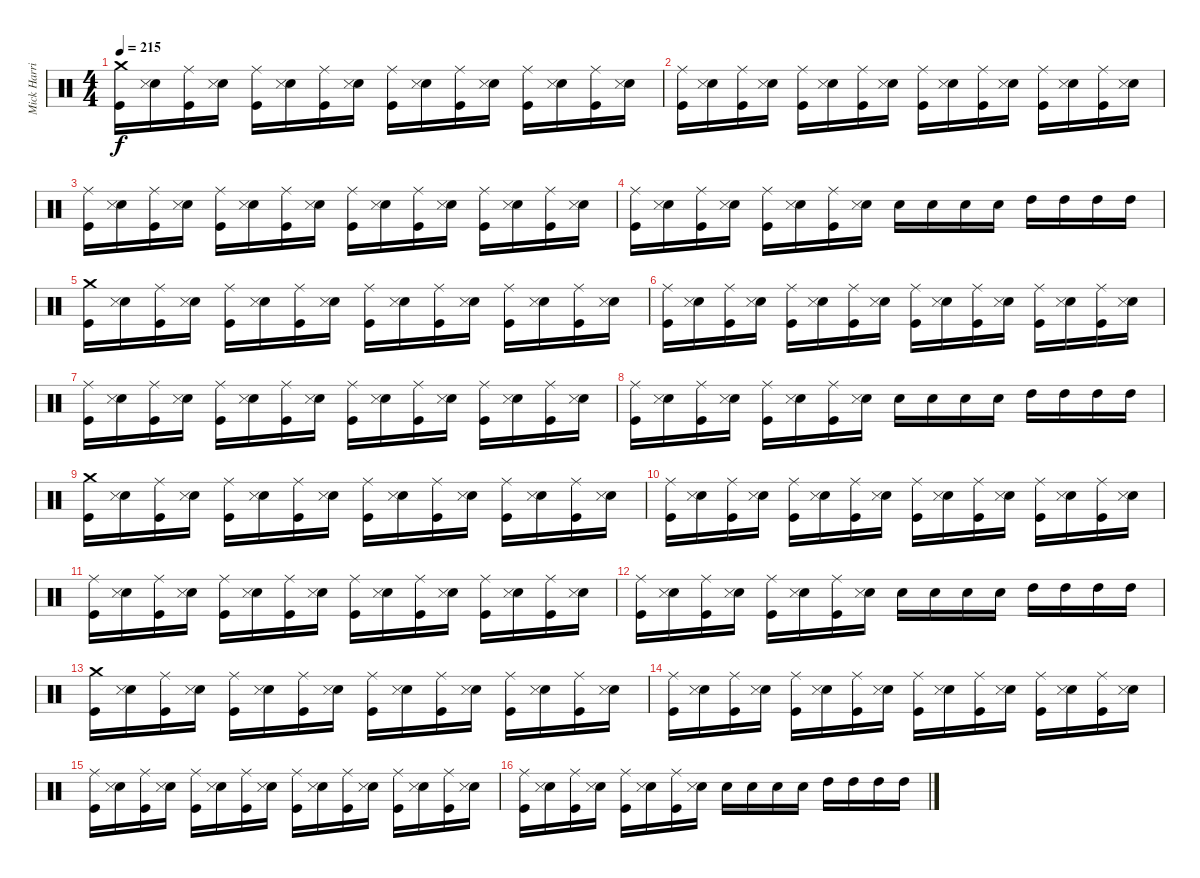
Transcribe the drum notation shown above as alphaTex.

\track ("Mick Harris (Drums)" "Mick Harri") {instrument percussion}
\staff {score}
\articulation defaults
\ts (4 4)
\tempo 215
\clef neutral
\ks c
("Kick (hit)" "Crash medium (hit)").16{dy f} ("Electric Snare (hit)" "Snare (side stick) 3").16 ("Kick (hit)" "Ride (middle)").16 ("Electric Snare (hit)" "Snare (side stick) 3").16 ("Kick (hit)" "Ride (middle)").16 ("Electric Snare (hit)" "Snare (side stick) 3").16 ("Kick (hit)" "Ride (middle)").16 ("Electric Snare (hit)" "Snare (side stick) 3").16 ("Kick (hit)" "Ride (middle)").16 ("Electric Snare (hit)" "Snare (side stick) 3").16 ("Kick (hit)" "Ride (middle)").16 ("Electric Snare (hit)" "Snare (side stick) 3").16 ("Kick (hit)" "Ride (middle)").16 ("Electric Snare (hit)" "Snare (side stick) 3").16 ("Kick (hit)" "Ride (middle)").16 ("Electric Snare (hit)" "Snare (side stick) 3").16 |
("Kick (hit)" "Ride (middle)").16 ("Electric Snare (hit)" "Snare (side stick) 3").16 ("Kick (hit)" "Ride (middle)").16 ("Electric Snare (hit)" "Snare (side stick) 3").16 ("Kick (hit)" "Ride (middle)").16 ("Electric Snare (hit)" "Snare (side stick) 3").16 ("Kick (hit)" "Ride (middle)").16 ("Electric Snare (hit)" "Snare (side stick) 3").16 ("Kick (hit)" "Ride (middle)").16 ("Electric Snare (hit)" "Snare (side stick) 3").16 ("Kick (hit)" "Ride (middle)").16 ("Electric Snare (hit)" "Snare (side stick) 3").16 ("Kick (hit)" "Ride (middle)").16 ("Electric Snare (hit)" "Snare (side stick) 3").16 ("Kick (hit)" "Ride (middle)").16 ("Electric Snare (hit)" "Snare (side stick) 3").16 |
("Kick (hit)" "Ride (middle)").16 ("Electric Snare (hit)" "Snare (side stick) 3").16 ("Kick (hit)" "Ride (middle)").16 ("Electric Snare (hit)" "Snare (side stick) 3").16 ("Kick (hit)" "Ride (middle)").16 ("Electric Snare (hit)" "Snare (side stick) 3").16 ("Kick (hit)" "Ride (middle)").16 ("Electric Snare (hit)" "Snare (side stick) 3").16 ("Kick (hit)" "Ride (middle)").16 ("Electric Snare (hit)" "Snare (side stick) 3").16 ("Kick (hit)" "Ride (middle)").16 ("Electric Snare (hit)" "Snare (side stick) 3").16 ("Kick (hit)" "Ride (middle)").16 ("Electric Snare (hit)" "Snare (side stick) 3").16 ("Kick (hit)" "Ride (middle)").16 ("Electric Snare (hit)" "Snare (side stick) 3").16 |
("Kick (hit)" "Ride (middle)").16 ("Electric Snare (hit)" "Snare (side stick) 3").16 ("Kick (hit)" "Ride (middle)").16 ("Electric Snare (hit)" "Snare (side stick) 3").16 ("Kick (hit)" "Ride (middle)").16 ("Electric Snare (hit)" "Snare (side stick) 3").16 ("Kick (hit)" "Ride (middle)").16 ("Electric Snare (hit)" "Snare (side stick) 3").16 "Electric Snare (hit)".16 "Electric Snare (hit)".16 "Electric Snare (hit)".16 "Electric Snare (hit)".16 "High Tom (hit)".16 "High Tom (hit)".16 "High Tom (hit)".16 "High Tom (hit)".16 |
("Kick (hit)" "Crash medium (hit)").16 ("Electric Snare (hit)" "Snare (side stick) 3").16 ("Kick (hit)" "Ride (middle)").16 ("Electric Snare (hit)" "Snare (side stick) 3").16 ("Kick (hit)" "Ride (middle)").16 ("Electric Snare (hit)" "Snare (side stick) 3").16 ("Kick (hit)" "Ride (middle)").16 ("Electric Snare (hit)" "Snare (side stick) 3").16 ("Kick (hit)" "Ride (middle)").16 ("Electric Snare (hit)" "Snare (side stick) 3").16 ("Kick (hit)" "Ride (middle)").16 ("Electric Snare (hit)" "Snare (side stick) 3").16 ("Kick (hit)" "Ride (middle)").16 ("Electric Snare (hit)" "Snare (side stick) 3").16 ("Kick (hit)" "Ride (middle)").16 ("Electric Snare (hit)" "Snare (side stick) 3").16 |
("Kick (hit)" "Ride (middle)").16 ("Electric Snare (hit)" "Snare (side stick) 3").16 ("Kick (hit)" "Ride (middle)").16 ("Electric Snare (hit)" "Snare (side stick) 3").16 ("Kick (hit)" "Ride (middle)").16 ("Electric Snare (hit)" "Snare (side stick) 3").16 ("Kick (hit)" "Ride (middle)").16 ("Electric Snare (hit)" "Snare (side stick) 3").16 ("Kick (hit)" "Ride (middle)").16 ("Electric Snare (hit)" "Snare (side stick) 3").16 ("Kick (hit)" "Ride (middle)").16 ("Electric Snare (hit)" "Snare (side stick) 3").16 ("Kick (hit)" "Ride (middle)").16 ("Electric Snare (hit)" "Snare (side stick) 3").16 ("Kick (hit)" "Ride (middle)").16 ("Electric Snare (hit)" "Snare (side stick) 3").16 |
("Kick (hit)" "Ride (middle)").16 ("Electric Snare (hit)" "Snare (side stick) 3").16 ("Kick (hit)" "Ride (middle)").16 ("Electric Snare (hit)" "Snare (side stick) 3").16 ("Kick (hit)" "Ride (middle)").16 ("Electric Snare (hit)" "Snare (side stick) 3").16 ("Kick (hit)" "Ride (middle)").16 ("Electric Snare (hit)" "Snare (side stick) 3").16 ("Kick (hit)" "Ride (middle)").16 ("Electric Snare (hit)" "Snare (side stick) 3").16 ("Kick (hit)" "Ride (middle)").16 ("Electric Snare (hit)" "Snare (side stick) 3").16 ("Kick (hit)" "Ride (middle)").16 ("Electric Snare (hit)" "Snare (side stick) 3").16 ("Kick (hit)" "Ride (middle)").16 ("Electric Snare (hit)" "Snare (side stick) 3").16 |
("Kick (hit)" "Ride (middle)").16 ("Electric Snare (hit)" "Snare (side stick) 3").16 ("Kick (hit)" "Ride (middle)").16 ("Electric Snare (hit)" "Snare (side stick) 3").16 ("Kick (hit)" "Ride (middle)").16 ("Electric Snare (hit)" "Snare (side stick) 3").16 ("Kick (hit)" "Ride (middle)").16 ("Electric Snare (hit)" "Snare (side stick) 3").16 "Electric Snare (hit)".16 "Electric Snare (hit)".16 "Electric Snare (hit)".16 "Electric Snare (hit)".16 "High Tom (hit)".16 "High Tom (hit)".16 "High Tom (hit)".16 "High Tom (hit)".16 |
("Kick (hit)" "Crash medium (hit)").16 ("Electric Snare (hit)" "Snare (side stick) 3").16 ("Kick (hit)" "Ride (middle)").16 ("Electric Snare (hit)" "Snare (side stick) 3").16 ("Kick (hit)" "Ride (middle)").16 ("Electric Snare (hit)" "Snare (side stick) 3").16 ("Kick (hit)" "Ride (middle)").16 ("Electric Snare (hit)" "Snare (side stick) 3").16 ("Kick (hit)" "Ride (middle)").16 ("Electric Snare (hit)" "Snare (side stick) 3").16 ("Kick (hit)" "Ride (middle)").16 ("Electric Snare (hit)" "Snare (side stick) 3").16 ("Kick (hit)" "Ride (middle)").16 ("Electric Snare (hit)" "Snare (side stick) 3").16 ("Kick (hit)" "Ride (middle)").16 ("Electric Snare (hit)" "Snare (side stick) 3").16 |
("Kick (hit)" "Ride (middle)").16 ("Electric Snare (hit)" "Snare (side stick) 3").16 ("Kick (hit)" "Ride (middle)").16 ("Electric Snare (hit)" "Snare (side stick) 3").16 ("Kick (hit)" "Ride (middle)").16 ("Electric Snare (hit)" "Snare (side stick) 3").16 ("Kick (hit)" "Ride (middle)").16 ("Electric Snare (hit)" "Snare (side stick) 3").16 ("Kick (hit)" "Ride (middle)").16 ("Electric Snare (hit)" "Snare (side stick) 3").16 ("Kick (hit)" "Ride (middle)").16 ("Electric Snare (hit)" "Snare (side stick) 3").16 ("Kick (hit)" "Ride (middle)").16 ("Electric Snare (hit)" "Snare (side stick) 3").16 ("Kick (hit)" "Ride (middle)").16 ("Electric Snare (hit)" "Snare (side stick) 3").16 |
("Kick (hit)" "Ride (middle)").16 ("Electric Snare (hit)" "Snare (side stick) 3").16 ("Kick (hit)" "Ride (middle)").16 ("Electric Snare (hit)" "Snare (side stick) 3").16 ("Kick (hit)" "Ride (middle)").16 ("Electric Snare (hit)" "Snare (side stick) 3").16 ("Kick (hit)" "Ride (middle)").16 ("Electric Snare (hit)" "Snare (side stick) 3").16 ("Kick (hit)" "Ride (middle)").16 ("Electric Snare (hit)" "Snare (side stick) 3").16 ("Kick (hit)" "Ride (middle)").16 ("Electric Snare (hit)" "Snare (side stick) 3").16 ("Kick (hit)" "Ride (middle)").16 ("Electric Snare (hit)" "Snare (side stick) 3").16 ("Kick (hit)" "Ride (middle)").16 ("Electric Snare (hit)" "Snare (side stick) 3").16 |
("Kick (hit)" "Ride (middle)").16 ("Electric Snare (hit)" "Snare (side stick) 3").16 ("Kick (hit)" "Ride (middle)").16 ("Electric Snare (hit)" "Snare (side stick) 3").16 ("Kick (hit)" "Ride (middle)").16 ("Electric Snare (hit)" "Snare (side stick) 3").16 ("Kick (hit)" "Ride (middle)").16 ("Electric Snare (hit)" "Snare (side stick) 3").16 "Electric Snare (hit)".16 "Electric Snare (hit)".16 "Electric Snare (hit)".16 "Electric Snare (hit)".16 "High Tom (hit)".16 "High Tom (hit)".16 "High Tom (hit)".16 "High Tom (hit)".16 |
("Kick (hit)" "Crash medium (hit)").16 ("Electric Snare (hit)" "Snare (side stick) 3").16 ("Kick (hit)" "Ride (middle)").16 ("Electric Snare (hit)" "Snare (side stick) 3").16 ("Kick (hit)" "Ride (middle)").16 ("Electric Snare (hit)" "Snare (side stick) 3").16 ("Kick (hit)" "Ride (middle)").16 ("Electric Snare (hit)" "Snare (side stick) 3").16 ("Kick (hit)" "Ride (middle)").16 ("Electric Snare (hit)" "Snare (side stick) 3").16 ("Kick (hit)" "Ride (middle)").16 ("Electric Snare (hit)" "Snare (side stick) 3").16 ("Kick (hit)" "Ride (middle)").16 ("Electric Snare (hit)" "Snare (side stick) 3").16 ("Kick (hit)" "Ride (middle)").16 ("Electric Snare (hit)" "Snare (side stick) 3").16 |
("Kick (hit)" "Ride (middle)").16 ("Electric Snare (hit)" "Snare (side stick) 3").16 ("Kick (hit)" "Ride (middle)").16 ("Electric Snare (hit)" "Snare (side stick) 3").16 ("Kick (hit)" "Ride (middle)").16 ("Electric Snare (hit)" "Snare (side stick) 3").16 ("Kick (hit)" "Ride (middle)").16 ("Electric Snare (hit)" "Snare (side stick) 3").16 ("Kick (hit)" "Ride (middle)").16 ("Electric Snare (hit)" "Snare (side stick) 3").16 ("Kick (hit)" "Ride (middle)").16 ("Electric Snare (hit)" "Snare (side stick) 3").16 ("Kick (hit)" "Ride (middle)").16 ("Electric Snare (hit)" "Snare (side stick) 3").16 ("Kick (hit)" "Ride (middle)").16 ("Electric Snare (hit)" "Snare (side stick) 3").16 |
("Kick (hit)" "Ride (middle)").16 ("Electric Snare (hit)" "Snare (side stick) 3").16 ("Kick (hit)" "Ride (middle)").16 ("Electric Snare (hit)" "Snare (side stick) 3").16 ("Kick (hit)" "Ride (middle)").16 ("Electric Snare (hit)" "Snare (side stick) 3").16 ("Kick (hit)" "Ride (middle)").16 ("Electric Snare (hit)" "Snare (side stick) 3").16 ("Kick (hit)" "Ride (middle)").16 ("Electric Snare (hit)" "Snare (side stick) 3").16 ("Kick (hit)" "Ride (middle)").16 ("Electric Snare (hit)" "Snare (side stick) 3").16 ("Kick (hit)" "Ride (middle)").16 ("Electric Snare (hit)" "Snare (side stick) 3").16 ("Kick (hit)" "Ride (middle)").16 ("Electric Snare (hit)" "Snare (side stick) 3").16 |
("Kick (hit)" "Ride (middle)").16 ("Electric Snare (hit)" "Snare (side stick) 3").16 ("Kick (hit)" "Ride (middle)").16 ("Electric Snare (hit)" "Snare (side stick) 3").16 ("Kick (hit)" "Ride (middle)").16 ("Electric Snare (hit)" "Snare (side stick) 3").16 ("Kick (hit)" "Ride (middle)").16 ("Electric Snare (hit)" "Snare (side stick) 3").16 "Electric Snare (hit)".16 "Electric Snare (hit)".16 "Electric Snare (hit)".16 "Electric Snare (hit)".16 "High Tom (hit)".16 "High Tom (hit)".16 "High Tom (hit)".16 "High Tom (hit)".16
